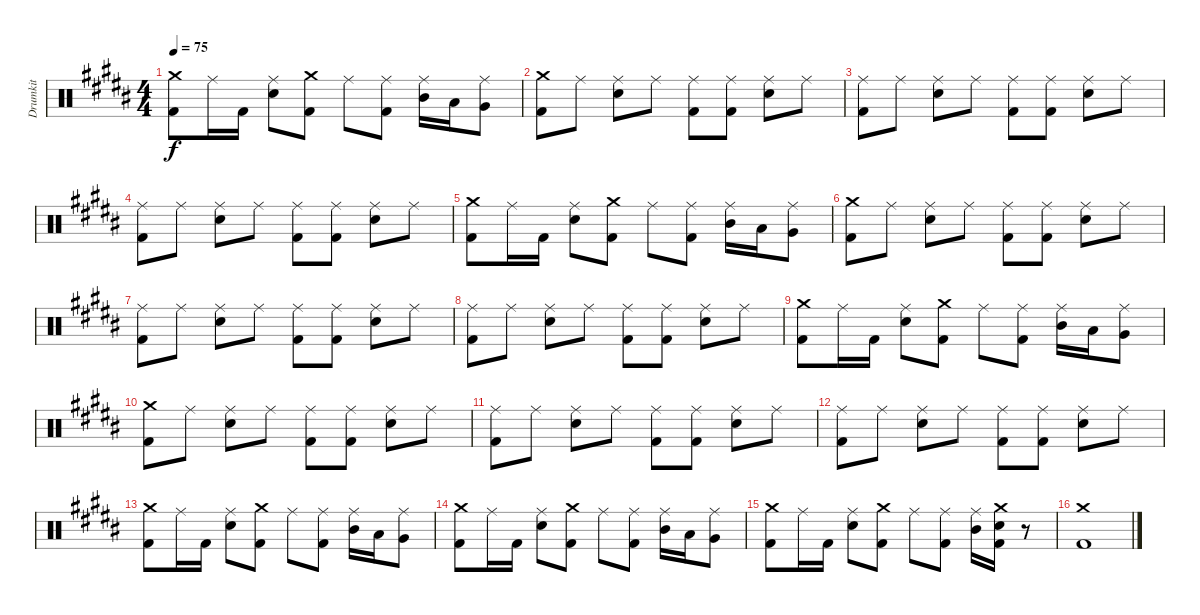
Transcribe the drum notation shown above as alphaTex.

\track ("Drumkit" "Drumkit") {instrument percussion}
\staff {score}
\articulation defaults
\ts (4 4)
\tempo 75
\clef neutral
\ks b
("Kick (hit) 2" "Crash medium (hit)").8{dy f} "Ride (middle)".16 "Kick (hit) 2".16 ("Ride (middle)" "Snare (hit) 2").8 ("Kick (hit) 2" "Crash medium (hit)").8 "Ride (middle)".8 ("Ride (middle)" "Kick (hit) 2").8 ("Mid Tom (hit)" "Ride (middle)").16 "Low Tom (hit)".16 ("Very Low Tom (hit)" "Ride (middle)").8 |
("Kick (hit) 2" "Crash medium (hit)").8 "Ride (middle)".8 ("Ride (middle)" "Snare (hit) 2").8 "Ride (middle)".8 ("Ride (middle)" "Kick (hit) 2").8 ("Ride (middle)" "Kick (hit) 2").8 ("Ride (middle)" "Snare (hit) 2").8 "Ride (middle)".8 |
("Kick (hit) 2" "Ride (middle)").8 "Ride (middle)".8 ("Ride (middle)" "Snare (hit) 2").8 "Ride (middle)".8 ("Ride (middle)" "Kick (hit) 2").8 ("Ride (middle)" "Kick (hit) 2").8 ("Ride (middle)" "Snare (hit) 2").8 "Ride (middle)".8 |
("Kick (hit) 2" "Ride (middle)").8 "Ride (middle)".8 ("Ride (middle)" "Snare (hit) 2").8 "Ride (middle)".8 ("Ride (middle)" "Kick (hit) 2").8 ("Ride (middle)" "Kick (hit) 2").8 ("Ride (middle)" "Snare (hit) 2").8 "Ride (middle)".8 |
("Kick (hit) 2" "Crash medium (hit)").8 "Ride (middle)".16 "Kick (hit) 2".16 ("Ride (middle)" "Snare (hit) 2").8 ("Kick (hit) 2" "Crash medium (hit)").8 "Ride (middle)".8 ("Ride (middle)" "Kick (hit) 2").8 ("Mid Tom (hit)" "Ride (middle)").16 "Low Tom (hit)".16 ("Very Low Tom (hit)" "Ride (middle)").8 |
("Kick (hit) 2" "Crash medium (hit)").8 "Ride (middle)".8 ("Ride (middle)" "Snare (hit) 2").8 "Ride (middle)".8 ("Ride (middle)" "Kick (hit) 2").8 ("Ride (middle)" "Kick (hit) 2").8 ("Ride (middle)" "Snare (hit) 2").8 "Ride (middle)".8 |
("Kick (hit) 2" "Ride (middle)").8 "Ride (middle)".8 ("Ride (middle)" "Snare (hit) 2").8 "Ride (middle)".8 ("Ride (middle)" "Kick (hit) 2").8 ("Ride (middle)" "Kick (hit) 2").8 ("Ride (middle)" "Snare (hit) 2").8 "Ride (middle)".8 |
("Kick (hit) 2" "Ride (middle)").8 "Ride (middle)".8 ("Ride (middle)" "Snare (hit) 2").8 "Ride (middle)".8 ("Ride (middle)" "Kick (hit) 2").8 ("Ride (middle)" "Kick (hit) 2").8 ("Ride (middle)" "Snare (hit) 2").8 "Ride (middle)".8 |
("Kick (hit) 2" "Crash medium (hit)").8 "Ride (middle)".16 "Kick (hit) 2".16 ("Ride (middle)" "Snare (hit) 2").8 ("Kick (hit) 2" "Crash medium (hit)").8 "Ride (middle)".8 ("Ride (middle)" "Kick (hit) 2").8 ("Mid Tom (hit)" "Ride (middle)").16 "Low Tom (hit)".16 ("Very Low Tom (hit)" "Ride (middle)").8 |
("Kick (hit) 2" "Crash medium (hit)").8 "Ride (middle)".8 ("Ride (middle)" "Snare (hit) 2").8 "Ride (middle)".8 ("Ride (middle)" "Kick (hit) 2").8 ("Ride (middle)" "Kick (hit) 2").8 ("Ride (middle)" "Snare (hit) 2").8 "Ride (middle)".8 |
("Kick (hit) 2" "Ride (middle)").8 "Ride (middle)".8 ("Ride (middle)" "Snare (hit) 2").8 "Ride (middle)".8 ("Ride (middle)" "Kick (hit) 2").8 ("Ride (middle)" "Kick (hit) 2").8 ("Ride (middle)" "Snare (hit) 2").8 "Ride (middle)".8 |
("Kick (hit) 2" "Ride (middle)").8 "Ride (middle)".8 ("Ride (middle)" "Snare (hit) 2").8 "Ride (middle)".8 ("Ride (middle)" "Kick (hit) 2").8 ("Ride (middle)" "Kick (hit) 2").8 ("Ride (middle)" "Snare (hit) 2").8 "Ride (middle)".8 |
("Kick (hit) 2" "Crash medium (hit)").8 "Ride (middle)".16 "Kick (hit) 2".16 ("Ride (middle)" "Snare (hit) 2").8 ("Kick (hit) 2" "Crash medium (hit)").8 "Ride (middle)".8 ("Ride (middle)" "Kick (hit) 2").8 ("Mid Tom (hit)" "Ride (middle)").16 "Low Tom (hit)".16 ("Very Low Tom (hit)" "Ride (middle)").8 |
("Kick (hit) 2" "Crash medium (hit)").8 "Ride (middle)".16 "Kick (hit) 2".16 ("Ride (middle)" "Snare (hit) 2").8 ("Kick (hit) 2" "Crash medium (hit)").8 "Ride (middle)".8 ("Ride (middle)" "Kick (hit) 2").8 ("Mid Tom (hit)" "Ride (middle)").16 "Low Tom (hit)".16 ("Very Low Tom (hit)" "Ride (middle)").8 |
("Kick (hit) 2" "Crash medium (hit)").8 "Ride (middle)".16 "Kick (hit) 2".16 ("Ride (middle)" "Snare (hit) 2").8 ("Kick (hit) 2" "Crash medium (hit)").8 "Ride (middle)".8 ("Ride (middle)" "Kick (hit) 2").8 ("Mid Tom (hit)" "Ride (middle)").16 ("Snare (hit) 2" "Kick (hit) 2" "Crash medium (hit)").16 r.8 |
("Kick (hit) 2" "Crash medium (hit)").1
